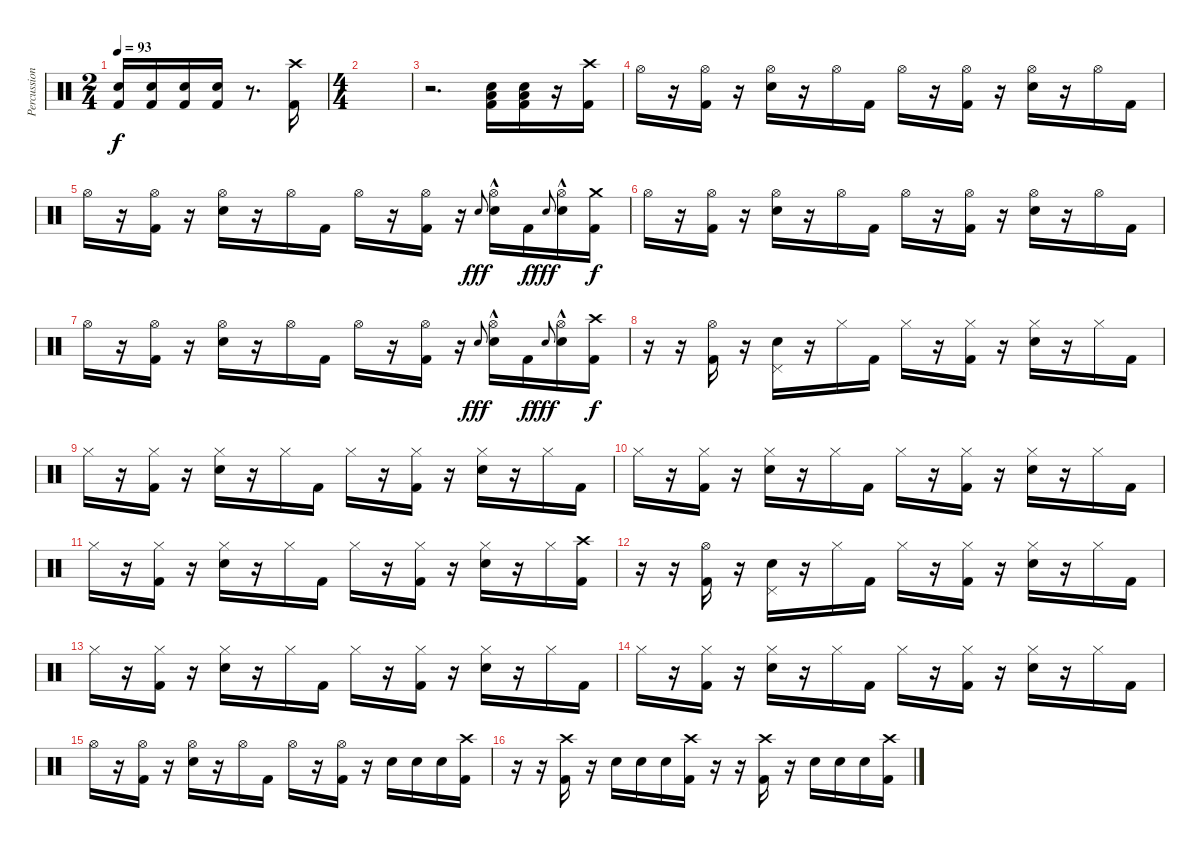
\track ("Percussion" "Percussion") {instrument percussion}
\staff {score}
\articulation defaults
\ts (2 4)
\tempo 93
\clef neutral
\ks c
("Electric Snare (hit)" "Kick (hit) 2").16{dy f} ("Electric Snare (hit)" "Kick (hit) 2").16 ("Electric Snare (hit)" "Kick (hit) 2").16 ("Electric Snare (hit)" "Kick (hit) 2").16 r.8{d} ("Crash high (hit)" "Kick (hit) 2").16 |
\ts (4 4)
|
r.2{d} ("Low Floor Tom (hit)" "Electric Snare (hit)" "Kick (hit) 2").16 ("Low Floor Tom (hit)" "Electric Snare (hit)" "Kick (hit) 2").16 r.16 ("Crash high (hit)" "Kick (hit) 2").16 |
"Hi-Hat (open)".16 r.16 ("Hi-Hat (open)" "Kick (hit) 2").16 r.16 ("Hi-Hat (open)" "Electric Snare (hit)").16 r.16 "Hi-Hat (open)".16 "Kick (hit) 2".16 "Hi-Hat (open)".16 r.16 ("Hi-Hat (open)" "Kick (hit) 2").16 r.16 ("Hi-Hat (open)" "Electric Snare (hit)").16 r.16 "Hi-Hat (open)".16 "Kick (hit) 2".16 |
"Hi-Hat (open)".16 r.16 ("Hi-Hat (open)" "Kick (hit) 2").16 r.16 ("Hi-Hat (open)" "Electric Snare (hit)").16 r.16 "Hi-Hat (open)".16 "Kick (hit) 2".16 "Hi-Hat (open)".16 r.16 ("Hi-Hat (open)" "Kick (hit) 2").16 r.16 "Electric Snare (hit)".8{gr onbeat dy fff} ("Hi-Hat (open)" "Electric Snare (hit)"{hac}).16 "Kick (hit) 2".16{dy f} "Electric Snare (hit)".8{gr onbeat dy fff} ("Hi-Hat (open)" "Electric Snare (hit)"{hac}).16 ("Crash medium (hit)" "Kick (hit) 2").16{dy f} |
"Hi-Hat (open)".16 r.16 ("Hi-Hat (open)" "Kick (hit) 2").16 r.16 ("Hi-Hat (open)" "Electric Snare (hit)").16 r.16 "Hi-Hat (open)".16 "Kick (hit) 2".16 "Hi-Hat (open)".16 r.16 ("Hi-Hat (open)" "Kick (hit) 2").16 r.16 ("Hi-Hat (open)" "Electric Snare (hit)").16 r.16 "Hi-Hat (open)".16 "Kick (hit) 2".16 |
"Hi-Hat (open)".16 r.16 ("Hi-Hat (open)" "Kick (hit) 2").16 r.16 ("Hi-Hat (open)" "Electric Snare (hit)").16 r.16 "Hi-Hat (open)".16 "Kick (hit) 2".16 "Hi-Hat (open)".16 r.16 ("Hi-Hat (open)" "Kick (hit) 2").16 r.16 "Electric Snare (hit)".8{gr onbeat dy fff} ("Hi-Hat (open)" "Electric Snare (hit)"{hac}).16 "Kick (hit) 2".16{dy f} "Electric Snare (hit)".8{gr onbeat dy fff} ("Hi-Hat (open)" "Electric Snare (hit)"{hac}).16 ("Crash high (hit)" "Kick (hit) 2").16{dy f} |
r.16 r.16 ("Hi-Hat (open)" "Kick (hit) 2").16 r.16 ("Pedal Hi-Hat (hit)" "Electric Snare (hit)").16 r.16 "Hi-Hat (closed)".16 "Kick (hit) 2".16 "Hi-Hat (closed)".16 r.16 ("Hi-Hat (closed)" "Kick (hit) 2").16 r.16 ("Hi-Hat (closed)" "Electric Snare (hit)").16 r.16 "Hi-Hat (closed)".16 "Kick (hit) 2".16 |
"Hi-Hat (closed)".16 r.16 ("Hi-Hat (closed)" "Kick (hit) 2").16 r.16 ("Hi-Hat (closed)" "Electric Snare (hit)").16 r.16 "Hi-Hat (closed)".16 "Kick (hit) 2".16 "Hi-Hat (closed)".16 r.16 ("Hi-Hat (closed)" "Kick (hit) 2").16 r.16 ("Hi-Hat (closed)" "Electric Snare (hit)").16 r.16 "Hi-Hat (closed)".16 "Kick (hit) 2".16 |
"Hi-Hat (closed)".16 r.16 ("Hi-Hat (closed)" "Kick (hit) 2").16 r.16 ("Hi-Hat (closed)" "Electric Snare (hit)").16 r.16 "Hi-Hat (closed)".16 "Kick (hit) 2".16 "Hi-Hat (closed)".16 r.16 ("Hi-Hat (closed)" "Kick (hit) 2").16 r.16 ("Hi-Hat (closed)" "Electric Snare (hit)").16 r.16 "Hi-Hat (closed)".16 "Kick (hit) 2".16 |
"Hi-Hat (closed)".16 r.16 ("Hi-Hat (closed)" "Kick (hit) 2").16 r.16 ("Hi-Hat (closed)" "Electric Snare (hit)").16 r.16 "Hi-Hat (closed)".16 "Kick (hit) 2".16 "Hi-Hat (closed)".16 r.16 ("Hi-Hat (closed)" "Kick (hit) 2").16 r.16 ("Hi-Hat (closed)" "Electric Snare (hit)").16 r.16 "Hi-Hat (closed)".16 ("Crash high (hit)" "Kick (hit) 2").16 |
r.16 r.16 ("Hi-Hat (open)" "Kick (hit) 2").16 r.16 ("Pedal Hi-Hat (hit)" "Electric Snare (hit)").16 r.16 "Hi-Hat (closed)".16 "Kick (hit) 2".16 "Hi-Hat (closed)".16 r.16 ("Hi-Hat (closed)" "Kick (hit) 2").16 r.16 ("Hi-Hat (closed)" "Electric Snare (hit)").16 r.16 "Hi-Hat (closed)".16 "Kick (hit) 2".16 |
"Hi-Hat (closed)".16 r.16 ("Hi-Hat (closed)" "Kick (hit) 2").16 r.16 ("Hi-Hat (closed)" "Electric Snare (hit)").16 r.16 "Hi-Hat (closed)".16 "Kick (hit) 2".16 "Hi-Hat (closed)".16 r.16 ("Hi-Hat (closed)" "Kick (hit) 2").16 r.16 ("Hi-Hat (closed)" "Electric Snare (hit)").16 r.16 "Hi-Hat (closed)".16 "Kick (hit) 2".16 |
"Hi-Hat (closed)".16 r.16 ("Hi-Hat (closed)" "Kick (hit) 2").16 r.16 ("Hi-Hat (closed)" "Electric Snare (hit)").16 r.16 "Hi-Hat (closed)".16 "Kick (hit) 2".16 "Hi-Hat (closed)".16 r.16 ("Hi-Hat (closed)" "Kick (hit) 2").16 r.16 ("Hi-Hat (closed)" "Electric Snare (hit)").16 r.16 "Hi-Hat (closed)".16 "Kick (hit) 2".16 |
"Hi-Hat (open)".16 r.16 ("Hi-Hat (open)" "Kick (hit) 2").16 r.16 ("Hi-Hat (open)" "Electric Snare (hit)").16 r.16 "Hi-Hat (open)".16 "Kick (hit) 2".16 "Hi-Hat (open)".16 r.16 ("Hi-Hat (open)" "Kick (hit) 2").16 r.16 "Electric Snare (hit)".16 "Electric Snare (hit)".16 "Electric Snare (hit)".16 ("Crash high (hit)" "Kick (hit) 2").16 |
r.16 r.16 ("Crash high (hit)" "Kick (hit) 2").16 r.16 "Electric Snare (hit)".16 "Electric Snare (hit)".16 "Electric Snare (hit)".16 ("Crash high (hit)" "Kick (hit) 2").16 r.16 r.16 ("Crash high (hit)" "Kick (hit) 2").16 r.16 "Electric Snare (hit)".16 "Electric Snare (hit)".16 "Electric Snare (hit)".16 ("Crash high (hit)" "Kick (hit) 2").16
